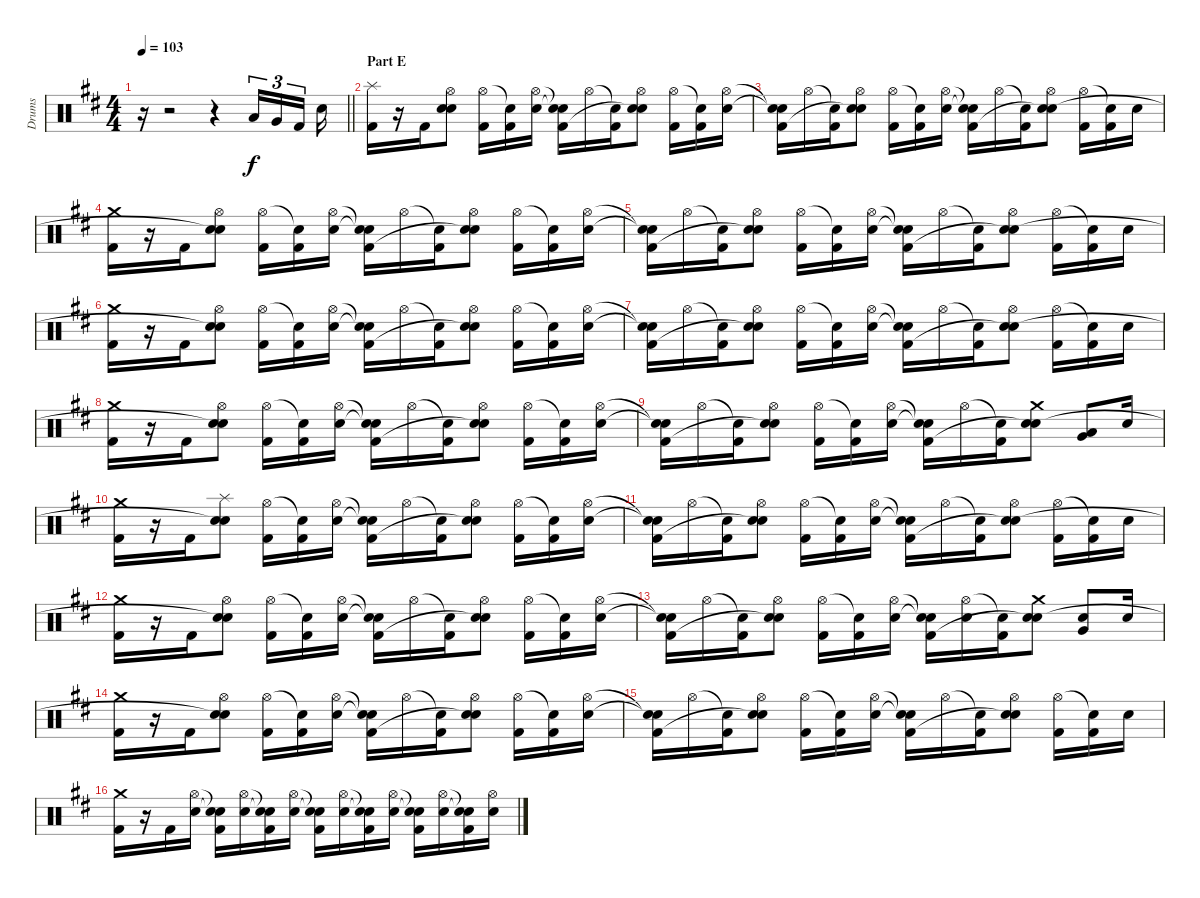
\track ("Drums" "Drums") {instrument percussion}
\staff {score}
\articulation defaults
\ts (4 4)
\tempo 103
\clef neutral
\barLineRight lightlight
\ks d
r.16{dy f} r.2 r.4 "Low Tom (hit)".16{tu (3 2)} "Very Low Tom (hit)".16{tu (3 2)} "Kick (hit) 2".16{tu (3 2)} "Electric Snare (hit)".16 |
\section ("" "Part E")
("Splash (hit)" "Kick (hit) 2").16 r.16 "Kick (hit) 2".16 ("Hi-Hat (open)" "Electric Snare (hit)" "Snare (hit)"{t}).8 ("Hi-Hat (open)" "Kick (hit) 2").16 ("Snare (hit)"{t} "Kick (hit) 2").16 ("Hi-Hat (open)" "Electric Snare (hit)").16 ("Snare (hit)"{t} "Snare (hit)"{t} "Kick (hit) 2").16 "Hi-Hat (open)".16 ("Snare (hit)"{t} "Kick (hit) 2").16 ("Hi-Hat (open)" "Electric Snare (hit)" "Snare (hit)"{t}).8 ("Hi-Hat (open)" "Kick (hit) 2").16 ("Snare (hit)"{t} "Kick (hit) 2").16 ("Hi-Hat (open)" "Electric Snare (hit)").16 |
("Snare (hit)"{t} "Snare (hit)"{t} "Kick (hit) 2").16 "Hi-Hat (open)".16 ("Snare (hit)"{t} "Kick (hit) 2").16 ("Hi-Hat (open)" "Electric Snare (hit)" "Snare (hit)"{t}).8 ("Hi-Hat (open)" "Kick (hit) 2").16 ("Snare (hit)"{t} "Kick (hit) 2").16 ("Hi-Hat (open)" "Electric Snare (hit)").16 ("Snare (hit)"{t} "Snare (hit)"{t} "Kick (hit) 2").16 "Hi-Hat (open)".16 ("Snare (hit)"{t} "Kick (hit) 2").16 ("Hi-Hat (open)" "Electric Snare (hit)" "Snare (hit)"{t}).8 ("Hi-Hat (open)" "Kick (hit) 2").16 ("Snare (hit)"{t} "Kick (hit) 2").16 "Electric Snare (hit)".16 |
("Crash medium (hit)" "Kick (hit) 2").16 r.16 "Kick (hit) 2".16 ("Hi-Hat (open)" "Electric Snare (hit)" "Snare (hit)"{t}).8 ("Hi-Hat (open)" "Kick (hit) 2").16 ("Snare (hit)"{t} "Kick (hit) 2").16 ("Hi-Hat (open)" "Electric Snare (hit)").16 ("Snare (hit)"{t} "Snare (hit)"{t} "Kick (hit) 2").16 "Hi-Hat (open)".16 ("Snare (hit)"{t} "Kick (hit) 2").16 ("Hi-Hat (open)" "Electric Snare (hit)" "Snare (hit)"{t}).8 ("Hi-Hat (open)" "Kick (hit) 2").16 ("Snare (hit)"{t} "Kick (hit) 2").16 ("Hi-Hat (open)" "Electric Snare (hit)").16 |
("Snare (hit)"{t} "Snare (hit)"{t} "Kick (hit) 2").16 "Hi-Hat (open)".16 ("Snare (hit)"{t} "Kick (hit) 2").16 ("Hi-Hat (open)" "Electric Snare (hit)" "Snare (hit)"{t}).8 ("Hi-Hat (open)" "Kick (hit) 2").16 ("Snare (hit)"{t} "Kick (hit) 2").16 ("Hi-Hat (open)" "Electric Snare (hit)").16 ("Snare (hit)"{t} "Snare (hit)"{t} "Kick (hit) 2").16 "Hi-Hat (open)".16 ("Snare (hit)"{t} "Kick (hit) 2").16 ("Hi-Hat (open)" "Electric Snare (hit)" "Snare (hit)"{t}).8 ("Hi-Hat (open)" "Kick (hit) 2").16 ("Snare (hit)"{t} "Kick (hit) 2").16 "Electric Snare (hit)".16 |
("Crash medium (hit)" "Kick (hit) 2").16 r.16 "Kick (hit) 2".16 ("Hi-Hat (open)" "Electric Snare (hit)" "Snare (hit)"{t}).8 ("Hi-Hat (open)" "Kick (hit) 2").16 ("Snare (hit)"{t} "Kick (hit) 2").16 ("Hi-Hat (open)" "Electric Snare (hit)").16 ("Snare (hit)"{t} "Snare (hit)"{t} "Kick (hit) 2").16 "Hi-Hat (open)".16 ("Snare (hit)"{t} "Kick (hit) 2").16 ("Hi-Hat (open)" "Electric Snare (hit)" "Snare (hit)"{t}).8 ("Hi-Hat (open)" "Kick (hit) 2").16 ("Snare (hit)"{t} "Kick (hit) 2").16 ("Hi-Hat (open)" "Electric Snare (hit)").16 |
("Snare (hit)"{t} "Snare (hit)"{t} "Kick (hit) 2").16 "Hi-Hat (open)".16 ("Snare (hit)"{t} "Kick (hit) 2").16 ("Hi-Hat (open)" "Electric Snare (hit)" "Snare (hit)"{t}).8 ("Hi-Hat (open)" "Kick (hit) 2").16 ("Snare (hit)"{t} "Kick (hit) 2").16 ("Hi-Hat (open)" "Electric Snare (hit)").16 ("Snare (hit)"{t} "Snare (hit)"{t} "Kick (hit) 2").16 "Hi-Hat (open)".16 ("Snare (hit)"{t} "Kick (hit) 2").16 ("Hi-Hat (open)" "Electric Snare (hit)" "Snare (hit)"{t}).8 ("Hi-Hat (open)" "Kick (hit) 2").16 ("Snare (hit)"{t} "Kick (hit) 2").16 "Electric Snare (hit)".16 |
("Crash medium (hit)" "Kick (hit) 2").16 r.16 "Kick (hit) 2".16 ("Hi-Hat (open)" "Electric Snare (hit)" "Snare (hit)"{t}).8 ("Hi-Hat (open)" "Kick (hit) 2").16 ("Snare (hit)"{t} "Kick (hit) 2").16 ("Hi-Hat (open)" "Electric Snare (hit)").16 ("Snare (hit)"{t} "Snare (hit)"{t} "Kick (hit) 2").16 "Hi-Hat (open)".16 ("Snare (hit)"{t} "Kick (hit) 2").16 ("Hi-Hat (open)" "Electric Snare (hit)" "Snare (hit)"{t}).8 ("Hi-Hat (open)" "Kick (hit) 2").16 ("Snare (hit)"{t} "Kick (hit) 2").16 ("Hi-Hat (open)" "Electric Snare (hit)").16 |
("Snare (hit)"{t} "Snare (hit)"{t} "Kick (hit) 2").16 "Hi-Hat (open)".16 ("Snare (hit)"{t} "Kick (hit) 2").16 ("Hi-Hat (open)" "Electric Snare (hit)" "Snare (hit)"{t}).8 ("Hi-Hat (open)" "Kick (hit) 2").16 ("Snare (hit)"{t} "Kick (hit) 2").16 ("Hi-Hat (open)" "Electric Snare (hit)").16 ("Snare (hit)"{t} "Snare (hit)"{t} "Kick (hit) 2").16 "Hi-Hat (open)".16 ("Snare (hit)"{t} "Kick (hit) 2").16 ("Crash medium (hit)" "Electric Snare (hit)" "Snare (hit)"{t}).8 ("Very Low Tom (hit)" "Low Floor Tom (hit)").8 "Electric Snare (hit)".16 |
("Crash medium (hit)" "Kick (hit) 2").16 r.16 "Kick (hit) 2".16 ("Splash (hit)" "Electric Snare (hit)" "Snare (hit)"{t}).8 ("Hi-Hat (open)" "Kick (hit) 2").16 ("Snare (hit)"{t} "Kick (hit) 2").16 ("Hi-Hat (open)" "Electric Snare (hit)").16 ("Snare (hit)"{t} "Snare (hit)"{t} "Kick (hit) 2").16 "Hi-Hat (open)".16 ("Snare (hit)"{t} "Kick (hit) 2").16 ("Hi-Hat (open)" "Electric Snare (hit)" "Snare (hit)"{t}).8 ("Hi-Hat (open)" "Kick (hit) 2").16 ("Snare (hit)"{t} "Kick (hit) 2").16 ("Hi-Hat (open)" "Electric Snare (hit)").16 |
("Snare (hit)"{t} "Snare (hit)"{t} "Kick (hit) 2").16 "Hi-Hat (open)".16 ("Snare (hit)"{t} "Kick (hit) 2").16 ("Hi-Hat (open)" "Electric Snare (hit)" "Snare (hit)"{t}).8 ("Hi-Hat (open)" "Kick (hit) 2").16 ("Snare (hit)"{t} "Kick (hit) 2").16 ("Hi-Hat (open)" "Electric Snare (hit)").16 ("Snare (hit)"{t} "Snare (hit)"{t} "Kick (hit) 2").16 "Hi-Hat (open)".16 ("Snare (hit)"{t} "Kick (hit) 2").16 ("Hi-Hat (open)" "Electric Snare (hit)" "Snare (hit)"{t}).8 ("Hi-Hat (open)" "Kick (hit) 2").16 ("Snare (hit)"{t} "Kick (hit) 2").16 "Electric Snare (hit)".16 |
("Crash medium (hit)" "Kick (hit) 2").16 r.16 "Kick (hit) 2".16 ("Hi-Hat (open)" "Electric Snare (hit)" "Snare (hit)"{t}).8 ("Hi-Hat (open)" "Kick (hit) 2").16 ("Snare (hit)"{t} "Kick (hit) 2").16 ("Hi-Hat (open)" "Electric Snare (hit)").16 ("Snare (hit)"{t} "Snare (hit)"{t} "Kick (hit) 2").16 "Hi-Hat (open)".16 ("Snare (hit)"{t} "Kick (hit) 2").16 ("Hi-Hat (open)" "Electric Snare (hit)" "Snare (hit)"{t}).8 ("Hi-Hat (open)" "Kick (hit) 2").16 ("Snare (hit)"{t} "Kick (hit) 2").16 ("Hi-Hat (open)" "Electric Snare (hit)").16 |
("Snare (hit)"{t} "Snare (hit)"{t} "Kick (hit) 2").16 "Hi-Hat (open)".16 ("Snare (hit)"{t} "Kick (hit) 2").16 ("Hi-Hat (open)" "Electric Snare (hit)" "Snare (hit)"{t}).8 ("Hi-Hat (open)" "Kick (hit) 2").16 ("Snare (hit)"{t} "Kick (hit) 2").16 ("Hi-Hat (open)" "Electric Snare (hit)").16 ("Snare (hit)"{t} "Snare (hit)"{t} "Kick (hit) 2").16 ("Hi-Hat (open)" "Electric Snare (hit)").16 ("Snare (hit)"{t} "Kick (hit) 2").16 ("Crash medium (hit)" "Electric Snare (hit)" "Snare (hit)"{t}).8 ("Electric Snare (hit)" "Very Low Tom (hit)").8 "Electric Snare (hit)".16 |
("Crash medium (hit)" "Kick (hit) 2").16 r.16 "Kick (hit) 2".16 ("Hi-Hat (open)" "Electric Snare (hit)" "Snare (hit)"{t}).8 ("Hi-Hat (open)" "Kick (hit) 2").16 ("Snare (hit)"{t} "Kick (hit) 2").16 ("Hi-Hat (open)" "Electric Snare (hit)").16 ("Snare (hit)"{t} "Snare (hit)"{t} "Kick (hit) 2").16 "Hi-Hat (open)".16 ("Snare (hit)"{t} "Kick (hit) 2").16 ("Hi-Hat (open)" "Electric Snare (hit)" "Snare (hit)"{t}).8 ("Hi-Hat (open)" "Kick (hit) 2").16 ("Snare (hit)"{t} "Kick (hit) 2").16 ("Hi-Hat (open)" "Electric Snare (hit)").16 |
("Snare (hit)"{t} "Snare (hit)"{t} "Kick (hit) 2").16 "Hi-Hat (open)".16 ("Snare (hit)"{t} "Kick (hit) 2").16 ("Hi-Hat (open)" "Electric Snare (hit)" "Snare (hit)"{t}).8 ("Hi-Hat (open)" "Kick (hit) 2").16 ("Snare (hit)"{t} "Kick (hit) 2").16 ("Hi-Hat (open)" "Electric Snare (hit)").16 ("Snare (hit)"{t} "Snare (hit)"{t} "Kick (hit) 2").16 "Hi-Hat (open)".16 ("Snare (hit)"{t} "Kick (hit) 2").16 ("Hi-Hat (open)" "Electric Snare (hit)" "Snare (hit)"{t}).8 ("Hi-Hat (open)" "Kick (hit) 2").16 ("Snare (hit)"{t} "Kick (hit) 2").16 "Electric Snare (hit)".16 |
("Crash medium (hit)" "Kick (hit) 2").16 r.16 "Kick (hit) 2".16 ("Hi-Hat (open)" "Electric Snare (hit)").16 ("Snare (hit)"{t} "Snare (hit)"{t} "Kick (hit) 2").16 ("Hi-Hat (open)" "Electric Snare (hit)").16 ("Snare (hit)"{t} "Snare (hit)"{t} "Kick (hit) 2").16 ("Hi-Hat (open)" "Electric Snare (hit)").16 ("Snare (hit)"{t} "Snare (hit)"{t} "Kick (hit) 2").16 ("Hi-Hat (open)" "Electric Snare (hit)").16 ("Snare (hit)"{t} "Snare (hit)"{t} "Kick (hit) 2").16 ("Hi-Hat (open)" "Electric Snare (hit)").16 ("Snare (hit)"{t} "Snare (hit)"{t} "Kick (hit) 2").16 ("Hi-Hat (open)" "Electric Snare (hit)").16 ("Snare (hit)"{t} "Snare (hit)"{t} "Kick (hit) 2").16 ("Hi-Hat (open)" "Electric Snare (hit)").16
